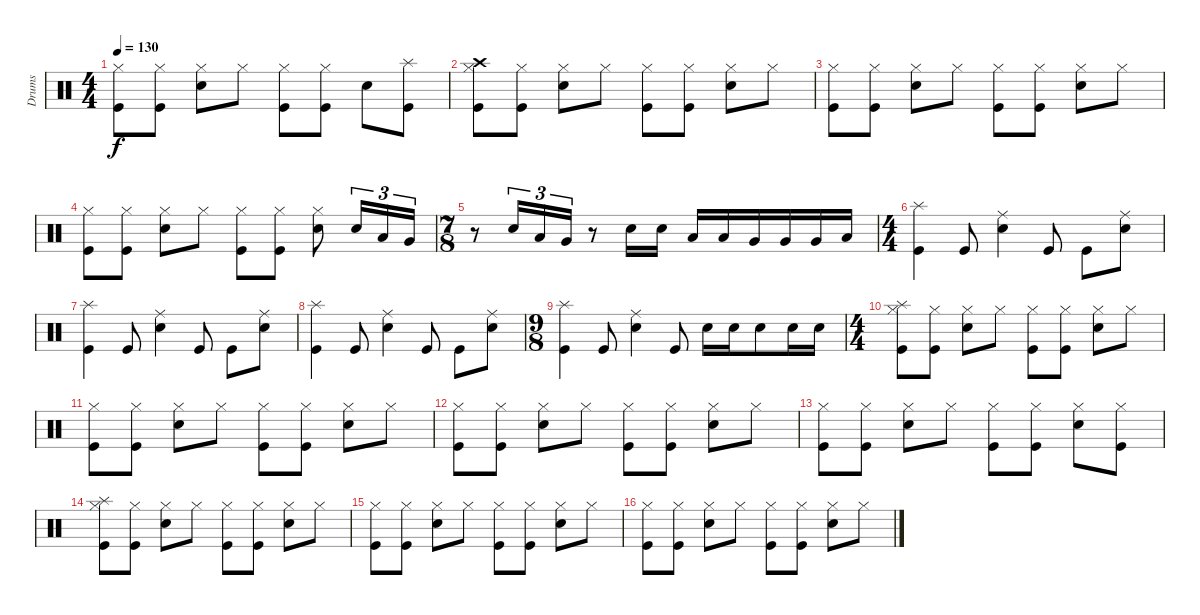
\track ("Drums" "Drums") {instrument percussion}
\staff {score}
\articulation defaults
\ts (4 4)
\tempo 130
\clef neutral
\ks c
("Hi-Hat (closed)" "Kick (hit)").8{dy f} ("Hi-Hat (closed)" "Kick (hit)").8 ("Hi-Hat (closed)" "Snare (hit) 2").8 "Hi-Hat (closed)".8 ("Hi-Hat (closed)" "Kick (hit)").8 ("Hi-Hat (closed)" "Kick (hit)").8 "Snare (hit) 2".8 ("Kick (hit)" "Splash (hit)").8 |
("Hi-Hat (closed)" "Kick (hit)" "Crash high (hit)").8 ("Hi-Hat (closed)" "Kick (hit)").8 ("Hi-Hat (closed)" "Snare (hit) 2").8 "Hi-Hat (closed)".8 ("Hi-Hat (closed)" "Kick (hit)").8 ("Hi-Hat (closed)" "Kick (hit)").8 ("Hi-Hat (closed)" "Snare (hit) 2").8 "Hi-Hat (closed)".8 |
("Hi-Hat (closed)" "Kick (hit)").8 ("Hi-Hat (closed)" "Kick (hit)").8 ("Hi-Hat (closed)" "Snare (hit) 2").8 "Hi-Hat (closed)".8 ("Hi-Hat (closed)" "Kick (hit)").8 ("Hi-Hat (closed)" "Kick (hit)").8 ("Hi-Hat (closed)" "Snare (hit) 2").8 "Hi-Hat (closed)".8 |
("Hi-Hat (closed)" "Kick (hit)").8 ("Hi-Hat (closed)" "Kick (hit)").8 ("Hi-Hat (closed)" "Snare (hit) 2").8 "Hi-Hat (closed)".8 ("Hi-Hat (closed)" "Kick (hit)").8 ("Hi-Hat (closed)" "Kick (hit)").8 ("Hi-Hat (closed)" "Snare (hit) 2").8 "Snare (hit) 2".16{tu (3 2)} "Low Tom (hit)".16{tu (3 2)} "Very Low Tom (hit)".16{tu (3 2)} |
\ts (7 8)
r.8 "Snare (hit) 2".16{tu (3 2)} "Low Tom (hit)".16{tu (3 2)} "Very Low Tom (hit)".16{tu (3 2)} r.8 "Snare (hit) 2".16 "Snare (hit) 2".16 "Low Tom (hit)".16 "Low Tom (hit)".16 "Very Low Tom (hit)".16 "Very Low Tom (hit)".16 "Very Low Tom (hit)".16 "Low Floor Tom (hit)".16 |
\ts (4 4)
("Kick (hit)" "Splash (hit)").4 "Kick (hit)".8 ("Ride (middle)" "Snare (hit) 2").4 "Kick (hit)".8 "Kick (hit)".8 ("Ride (middle)" "Snare (hit) 2").8 |
("Kick (hit)" "Splash (hit)").4 "Kick (hit)".8 ("Ride (middle)" "Snare (hit) 2").4 "Kick (hit)".8 "Kick (hit)".8 ("Ride (middle)" "Snare (hit) 2").8 |
("Kick (hit)" "Splash (hit)").4 "Kick (hit)".8 ("Ride (middle)" "Snare (hit) 2").4 "Kick (hit)".8 "Kick (hit)".8 ("Ride (middle)" "Snare (hit) 2").8 |
\ts (9 8)
("Kick (hit)" "Splash (hit)").4 "Kick (hit)".8 ("Ride (middle)" "Snare (hit) 2").4 "Kick (hit)".8 "Snare (hit) 2".16 "Snare (hit) 2".16 "Snare (hit) 2".8 "Snare (hit) 2".16 "Snare (hit) 2".16 |
\ts (4 4)
("Hi-Hat (closed)" "Kick (hit)" "Splash (hit)").8 ("Hi-Hat (closed)" "Kick (hit)").8 ("Hi-Hat (closed)" "Snare (hit) 2").8 "Hi-Hat (closed)".8 ("Hi-Hat (closed)" "Kick (hit)").8 ("Hi-Hat (closed)" "Kick (hit)").8 ("Hi-Hat (closed)" "Snare (hit) 2").8 "Hi-Hat (closed)".8 |
("Hi-Hat (closed)" "Kick (hit)").8 ("Hi-Hat (closed)" "Kick (hit)").8 ("Hi-Hat (closed)" "Snare (hit) 2").8 "Hi-Hat (closed)".8 ("Hi-Hat (closed)" "Kick (hit)").8 ("Hi-Hat (closed)" "Kick (hit)").8 ("Hi-Hat (closed)" "Snare (hit) 2").8 "Hi-Hat (closed)".8 |
("Hi-Hat (closed)" "Kick (hit)").8 ("Hi-Hat (closed)" "Kick (hit)").8 ("Hi-Hat (closed)" "Snare (hit) 2").8 "Hi-Hat (closed)".8 ("Hi-Hat (closed)" "Kick (hit)").8 ("Hi-Hat (closed)" "Kick (hit)").8 ("Hi-Hat (closed)" "Snare (hit) 2").8 "Hi-Hat (closed)".8 |
("Hi-Hat (closed)" "Kick (hit)").8 ("Hi-Hat (closed)" "Kick (hit)").8 ("Hi-Hat (closed)" "Snare (hit) 2").8 "Hi-Hat (closed)".8 ("Hi-Hat (closed)" "Kick (hit)").8 ("Hi-Hat (closed)" "Kick (hit)").8 ("Hi-Hat (closed)" "Snare (hit) 2").8 ("Hi-Hat (closed)" "Kick (hit)").8 |
("Hi-Hat (closed)" "Kick (hit)" "Splash (hit)").8 ("Hi-Hat (closed)" "Kick (hit)").8 ("Hi-Hat (closed)" "Snare (hit) 2").8 "Hi-Hat (closed)".8 ("Hi-Hat (closed)" "Kick (hit)").8 ("Hi-Hat (closed)" "Kick (hit)").8 ("Hi-Hat (closed)" "Snare (hit) 2").8 "Hi-Hat (closed)".8 |
("Hi-Hat (closed)" "Kick (hit)").8 ("Hi-Hat (closed)" "Kick (hit)").8 ("Hi-Hat (closed)" "Snare (hit) 2").8 "Hi-Hat (closed)".8 ("Hi-Hat (closed)" "Kick (hit)").8 ("Hi-Hat (closed)" "Kick (hit)").8 ("Hi-Hat (closed)" "Snare (hit) 2").8 "Hi-Hat (closed)".8 |
("Hi-Hat (closed)" "Kick (hit)").8 ("Hi-Hat (closed)" "Kick (hit)").8 ("Hi-Hat (closed)" "Snare (hit) 2").8 "Hi-Hat (closed)".8 ("Hi-Hat (closed)" "Kick (hit)").8 ("Hi-Hat (closed)" "Kick (hit)").8 ("Hi-Hat (closed)" "Snare (hit) 2").8 "Hi-Hat (closed)".8
